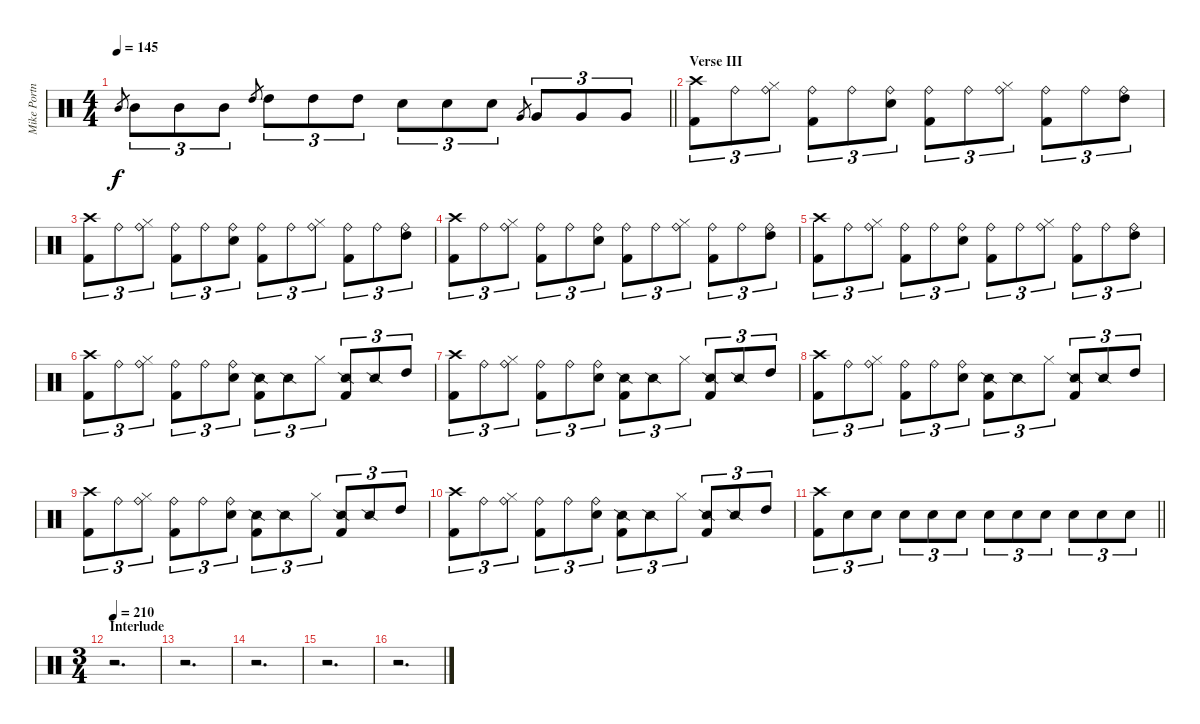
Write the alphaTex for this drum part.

\track ("Mike Portnoy" "Mike Portn") {instrument percussion}
\staff {score}
\articulation defaults
\ts (4 4)
\tempo 145
\clef neutral
\barLineRight lightlight
\ks c "Mid Tom (hit)".8{gr dy f} "Mid Tom (hit)".8{tu (3 2)} "Mid Tom (hit)".8{tu (3 2)} "Mid Tom (hit)".8{tu (3 2)} "High Tom (hit)".8{gr} "High Tom (hit)".8{tu (3 2)} "High Tom (hit)".8{tu (3 2)} "High Tom (hit)".8{tu (3 2)} "Electric Snare (hit)".8{tu (3 2)} "Electric Snare (hit)".8{tu (3 2)} "Electric Snare (hit)".8{tu (3 2)} "Very Low Tom (hit)".8{gr} "Very Low Tom (hit)".8{tu (3 2)} "Very Low Tom (hit)".8{tu (3 2)} "Very Low Tom (hit)".8{tu (3 2)}
|
\section ("" "Verse III")
("Crash high (hit)" "Kick (hit) 2").8{tu (3 2)} "Ride (bell)".8{tu (3 2)} ("Ride (bell)" "Hi-Hat (closed)").8{tu (3 2)} ("Ride (bell)" "Kick (hit) 2").8{tu (3 2)} "Ride (bell)".8{tu (3 2)} ("Ride (bell)" "Electric Snare (hit)").8{tu (3 2)} ("Ride (bell)" "Kick (hit) 2").8{tu (3 2)} "Ride (bell)".8{tu (3 2)} ("Ride (bell)" "Hi-Hat (closed)").8{tu (3 2)} ("Ride (bell)" "Kick (hit) 2").8{tu (3 2)} "Ride (bell)".8{tu (3 2)} ("Ride (bell)" "High Tom (hit)").8{tu (3 2)} |
("Crash high (hit)" "Kick (hit) 2").8{tu (3 2)} "Ride (bell)".8{tu (3 2)} ("Ride (bell)" "Hi-Hat (closed)").8{tu (3 2)} ("Ride (bell)" "Kick (hit) 2").8{tu (3 2)} "Ride (bell)".8{tu (3 2)} ("Ride (bell)" "Electric Snare (hit)").8{tu (3 2)} ("Ride (bell)" "Kick (hit) 2").8{tu (3 2)} "Ride (bell)".8{tu (3 2)} ("Ride (bell)" "Hi-Hat (closed)").8{tu (3 2)} ("Ride (bell)" "Kick (hit) 2").8{tu (3 2)} "Ride (bell)".8{tu (3 2)} ("Ride (bell)" "High Tom (hit)").8{tu (3 2)} |
("Crash high (hit)" "Kick (hit) 2").8{tu (3 2)} "Ride (bell)".8{tu (3 2)} ("Ride (bell)" "Hi-Hat (closed)").8{tu (3 2)} ("Ride (bell)" "Kick (hit) 2").8{tu (3 2)} "Ride (bell)".8{tu (3 2)} ("Ride (bell)" "Electric Snare (hit)").8{tu (3 2)} ("Ride (bell)" "Kick (hit) 2").8{tu (3 2)} "Ride (bell)".8{tu (3 2)} ("Ride (bell)" "Hi-Hat (closed)").8{tu (3 2)} ("Ride (bell)" "Kick (hit) 2").8{tu (3 2)} "Ride (bell)".8{tu (3 2)} ("Ride (bell)" "High Tom (hit)").8{tu (3 2)} |
("Crash high (hit)" "Kick (hit) 2").8{tu (3 2)} "Ride (bell)".8{tu (3 2)} ("Ride (bell)" "Hi-Hat (closed)").8{tu (3 2)} ("Ride (bell)" "Kick (hit) 2").8{tu (3 2)} "Ride (bell)".8{tu (3 2)} ("Ride (bell)" "Electric Snare (hit)").8{tu (3 2)} ("Ride (bell)" "Kick (hit) 2").8{tu (3 2)} "Ride (bell)".8{tu (3 2)} ("Ride (bell)" "Hi-Hat (closed)").8{tu (3 2)} ("Ride (bell)" "Kick (hit) 2").8{tu (3 2)} "Ride (bell)".8{tu (3 2)} ("Ride (bell)" "High Tom (hit)").8{tu (3 2)} |
("Crash high (hit)" "Kick (hit) 2").8{tu (3 2)} "Ride (bell)".8{tu (3 2)} ("Ride (bell)" "Hi-Hat (closed)").8{tu (3 2)} ("Ride (bell)" "Kick (hit) 2").8{tu (3 2)} "Ride (bell)".8{tu (3 2)} ("Ride (bell)" "Electric Snare (hit)").8{tu (3 2)} ("Snare (side stick) 2" "Kick (hit) 2").8{tu (3 2)} "Snare (side stick) 2".8{tu (3 2)} "Hi-Hat (closed)".8{tu (3 2)} ("Snare (side stick) 2" "Kick (hit) 2").8{tu (3 2)} "Snare (side stick) 2".8{tu (3 2)} "High Tom (hit)".8{tu (3 2)} |
("Crash high (hit)" "Kick (hit) 2").8{tu (3 2)} "Ride (bell)".8{tu (3 2)} ("Ride (bell)" "Hi-Hat (closed)").8{tu (3 2)} ("Ride (bell)" "Kick (hit) 2").8{tu (3 2)} "Ride (bell)".8{tu (3 2)} ("Ride (bell)" "Electric Snare (hit)").8{tu (3 2)} ("Snare (side stick) 2" "Kick (hit) 2").8{tu (3 2)} "Snare (side stick) 2".8{tu (3 2)} "Hi-Hat (closed)".8{tu (3 2)} ("Snare (side stick) 2" "Kick (hit) 2").8{tu (3 2)} "Snare (side stick) 2".8{tu (3 2)} "High Tom (hit)".8{tu (3 2)} |
("Crash high (hit)" "Kick (hit) 2").8{tu (3 2)} "Ride (bell)".8{tu (3 2)} ("Ride (bell)" "Hi-Hat (closed)").8{tu (3 2)} ("Ride (bell)" "Kick (hit) 2").8{tu (3 2)} "Ride (bell)".8{tu (3 2)} ("Ride (bell)" "Electric Snare (hit)").8{tu (3 2)} ("Snare (side stick) 2" "Kick (hit) 2").8{tu (3 2)} "Snare (side stick) 2".8{tu (3 2)} "Hi-Hat (closed)".8{tu (3 2)} ("Snare (side stick) 2" "Kick (hit) 2").8{tu (3 2)} "Snare (side stick) 2".8{tu (3 2)} "High Tom (hit)".8{tu (3 2)} |
("Crash high (hit)" "Kick (hit) 2").8{tu (3 2)} "Ride (bell)".8{tu (3 2)} ("Ride (bell)" "Hi-Hat (closed)").8{tu (3 2)} ("Ride (bell)" "Kick (hit) 2").8{tu (3 2)} "Ride (bell)".8{tu (3 2)} ("Ride (bell)" "Electric Snare (hit)").8{tu (3 2)} ("Snare (side stick) 2" "Kick (hit) 2").8{tu (3 2)} "Snare (side stick) 2".8{tu (3 2)} "Hi-Hat (closed)".8{tu (3 2)} ("Snare (side stick) 2" "Kick (hit) 2").8{tu (3 2)} "Snare (side stick) 2".8{tu (3 2)} "High Tom (hit)".8{tu (3 2)} |
("Crash high (hit)" "Kick (hit) 2").8{tu (3 2)} "Ride (bell)".8{tu (3 2)} ("Ride (bell)" "Hi-Hat (closed)").8{tu (3 2)} ("Ride (bell)" "Kick (hit) 2").8{tu (3 2)} "Ride (bell)".8{tu (3 2)} ("Ride (bell)" "Electric Snare (hit)").8{tu (3 2)} ("Snare (side stick) 2" "Kick (hit) 2").8{tu (3 2)} "Snare (side stick) 2".8{tu (3 2)} "Hi-Hat (closed)".8{tu (3 2)} ("Snare (side stick) 2" "Kick (hit) 2").8{tu (3 2)} "Snare (side stick) 2".8{tu (3 2)} "High Tom (hit)".8{tu (3 2)} |
\barLineRight lightlight
("Crash high (hit)" "Kick (hit) 2").8{tu (3 2)} "Electric Snare (hit)".8{tu (3 2)} "Electric Snare (hit)".8{tu (3 2)} "Electric Snare (hit)".8{tu (3 2)} "Electric Snare (hit)".8{tu (3 2)} "Electric Snare (hit)".8{tu (3 2)} "Electric Snare (hit)".8{tu (3 2)} "Electric Snare (hit)".8{tu (3 2)} "Electric Snare (hit)".8{tu (3 2)} "Electric Snare (hit)".8{tu (3 2)} "Electric Snare (hit)".8{tu (3 2)} "Electric Snare (hit)".8{tu (3 2)} |
\ts (3 4)
\section ("" "Interlude")
\tempo 200
\tempo 210
r.2{d} |
r.2{d} |
r.2{d} |
r.2{d} |
r.2{d}
